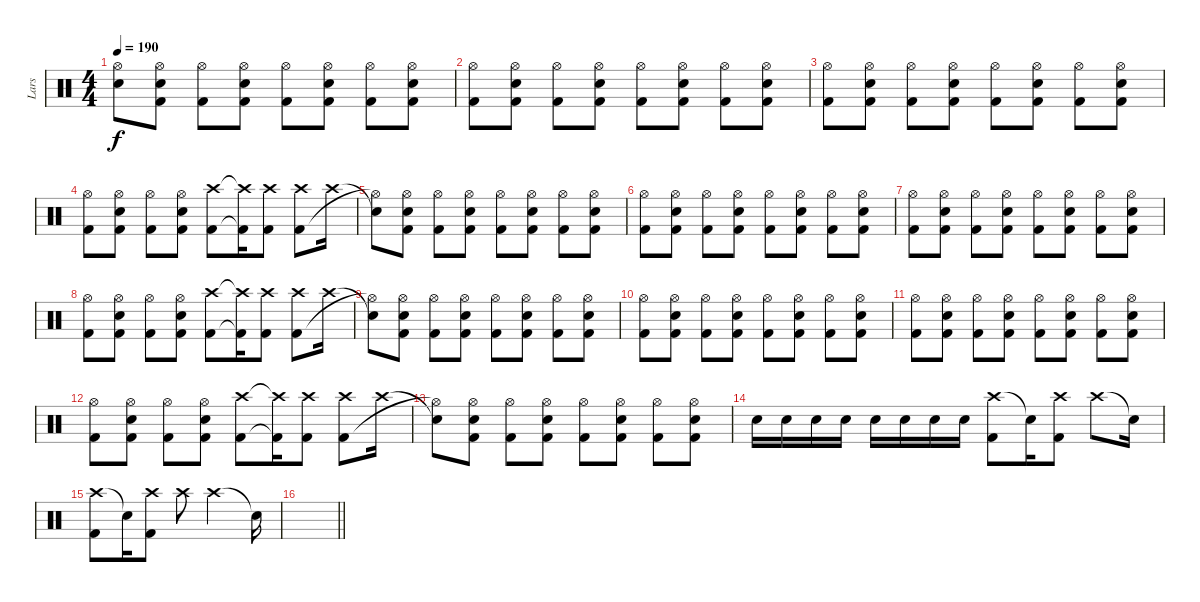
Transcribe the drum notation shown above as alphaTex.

\track ("Lars" "Lars") {instrument percussion}
\staff {score}
\articulation defaults
\ts (4 4)
\tempo 190
\clef neutral
\ks c
("Snare (hit)"{t} "Hi-Hat (open)"{t}).8{dy f} ("Hi-Hat (open)" "Snare (hit) 2" "Kick (hit) 2").8 ("Hi-Hat (open)" "Kick (hit) 2").8 ("Hi-Hat (open)" "Snare (hit) 2" "Kick (hit) 2").8 ("Hi-Hat (open)" "Kick (hit) 2").8 ("Hi-Hat (open)" "Snare (hit) 2" "Kick (hit) 2").8 ("Hi-Hat (open)" "Kick (hit) 2").8 ("Hi-Hat (open)" "Snare (hit) 2" "Kick (hit) 2").8 |
("Hi-Hat (open)" "Kick (hit) 2").8 ("Hi-Hat (open)" "Snare (hit) 2" "Kick (hit) 2").8 ("Hi-Hat (open)" "Kick (hit) 2").8 ("Hi-Hat (open)" "Snare (hit) 2" "Kick (hit) 2").8 ("Hi-Hat (open)" "Kick (hit) 2").8 ("Hi-Hat (open)" "Snare (hit) 2" "Kick (hit) 2").8 ("Hi-Hat (open)" "Kick (hit) 2").8 ("Hi-Hat (open)" "Snare (hit) 2" "Kick (hit) 2").8 |
("Hi-Hat (open)" "Kick (hit) 2").8 ("Hi-Hat (open)" "Snare (hit) 2" "Kick (hit) 2").8 ("Hi-Hat (open)" "Kick (hit) 2").8 ("Hi-Hat (open)" "Snare (hit) 2" "Kick (hit) 2").8 ("Hi-Hat (open)" "Kick (hit) 2").8 ("Hi-Hat (open)" "Snare (hit) 2" "Kick (hit) 2").8 ("Hi-Hat (open)" "Kick (hit) 2").8 ("Hi-Hat (open)" "Snare (hit) 2" "Kick (hit) 2").8 |
("Hi-Hat (open)" "Kick (hit) 2").8 ("Hi-Hat (open)" "Snare (hit) 2" "Kick (hit) 2").8 ("Hi-Hat (open)" "Kick (hit) 2").8 ("Hi-Hat (open)" "Snare (hit) 2" "Kick (hit) 2").8 ("Crash high (hit)" "Kick (hit) 2").8 ("Crash high (hit)"{t} "Kick (hit) 2"{t}).16 ("Crash high (hit)" "Kick (hit) 2").8 ("Crash high (hit)" "Kick (hit) 2").8 "Crash high (hit)".16 |
("Snare (hit)"{t} "Hi-Hat (open)"{t}).8 ("Hi-Hat (open)" "Snare (hit) 2" "Kick (hit) 2").8 ("Hi-Hat (open)" "Kick (hit) 2").8 ("Hi-Hat (open)" "Snare (hit) 2" "Kick (hit) 2").8 ("Hi-Hat (open)" "Kick (hit) 2").8 ("Hi-Hat (open)" "Snare (hit) 2" "Kick (hit) 2").8 ("Hi-Hat (open)" "Kick (hit) 2").8 ("Hi-Hat (open)" "Snare (hit) 2" "Kick (hit) 2").8 |
("Hi-Hat (open)" "Kick (hit) 2").8 ("Hi-Hat (open)" "Snare (hit) 2" "Kick (hit) 2").8 ("Hi-Hat (open)" "Kick (hit) 2").8 ("Hi-Hat (open)" "Snare (hit) 2" "Kick (hit) 2").8 ("Hi-Hat (open)" "Kick (hit) 2").8 ("Hi-Hat (open)" "Snare (hit) 2" "Kick (hit) 2").8 ("Hi-Hat (open)" "Kick (hit) 2").8 ("Hi-Hat (open)" "Snare (hit) 2" "Kick (hit) 2").8 |
("Hi-Hat (open)" "Kick (hit) 2").8 ("Hi-Hat (open)" "Snare (hit) 2" "Kick (hit) 2").8 ("Hi-Hat (open)" "Kick (hit) 2").8 ("Hi-Hat (open)" "Snare (hit) 2" "Kick (hit) 2").8 ("Hi-Hat (open)" "Kick (hit) 2").8 ("Hi-Hat (open)" "Snare (hit) 2" "Kick (hit) 2").8 ("Hi-Hat (open)" "Kick (hit) 2").8 ("Hi-Hat (open)" "Snare (hit) 2" "Kick (hit) 2").8 |
("Hi-Hat (open)" "Kick (hit) 2").8 ("Hi-Hat (open)" "Snare (hit) 2" "Kick (hit) 2").8 ("Hi-Hat (open)" "Kick (hit) 2").8 ("Hi-Hat (open)" "Snare (hit) 2" "Kick (hit) 2").8 ("Crash high (hit)" "Kick (hit) 2").8 ("Crash high (hit)"{t} "Kick (hit) 2"{t}).16 ("Crash high (hit)" "Kick (hit) 2").8 ("Crash high (hit)" "Kick (hit) 2").8 "Crash high (hit)".16 |
("Snare (hit)"{t} "Hi-Hat (open)"{t}).8 ("Hi-Hat (open)" "Snare (hit) 2" "Kick (hit) 2").8 ("Hi-Hat (open)" "Kick (hit) 2").8 ("Hi-Hat (open)" "Snare (hit) 2" "Kick (hit) 2").8 ("Hi-Hat (open)" "Kick (hit) 2").8 ("Hi-Hat (open)" "Snare (hit) 2" "Kick (hit) 2").8 ("Hi-Hat (open)" "Kick (hit) 2").8 ("Hi-Hat (open)" "Snare (hit) 2" "Kick (hit) 2").8 |
("Hi-Hat (open)" "Kick (hit) 2").8 ("Hi-Hat (open)" "Snare (hit) 2" "Kick (hit) 2").8 ("Hi-Hat (open)" "Kick (hit) 2").8 ("Hi-Hat (open)" "Snare (hit) 2" "Kick (hit) 2").8 ("Hi-Hat (open)" "Kick (hit) 2").8 ("Hi-Hat (open)" "Snare (hit) 2" "Kick (hit) 2").8 ("Hi-Hat (open)" "Kick (hit) 2").8 ("Hi-Hat (open)" "Snare (hit) 2" "Kick (hit) 2").8 |
("Hi-Hat (open)" "Kick (hit) 2").8 ("Hi-Hat (open)" "Snare (hit) 2" "Kick (hit) 2").8 ("Hi-Hat (open)" "Kick (hit) 2").8 ("Hi-Hat (open)" "Snare (hit) 2" "Kick (hit) 2").8 ("Hi-Hat (open)" "Kick (hit) 2").8 ("Hi-Hat (open)" "Snare (hit) 2" "Kick (hit) 2").8 ("Hi-Hat (open)" "Kick (hit) 2").8 ("Hi-Hat (open)" "Snare (hit) 2" "Kick (hit) 2").8 |
("Hi-Hat (open)" "Kick (hit) 2").8 ("Hi-Hat (open)" "Snare (hit) 2" "Kick (hit) 2").8 ("Hi-Hat (open)" "Kick (hit) 2").8 ("Hi-Hat (open)" "Snare (hit) 2" "Kick (hit) 2").8 ("Crash high (hit)" "Kick (hit) 2").8 ("Crash high (hit)"{t} "Kick (hit) 2"{t}).16 ("Crash high (hit)" "Kick (hit) 2").8 ("Crash high (hit)" "Kick (hit) 2").8 "Crash high (hit)".16 |
("Snare (hit)"{t} "Hi-Hat (open)"{t}).8 ("Hi-Hat (open)" "Snare (hit) 2" "Kick (hit) 2").8 ("Hi-Hat (open)" "Kick (hit) 2").8 ("Hi-Hat (open)" "Snare (hit) 2" "Kick (hit) 2").8 ("Hi-Hat (open)" "Kick (hit) 2").8 ("Hi-Hat (open)" "Snare (hit) 2" "Kick (hit) 2").8 ("Hi-Hat (open)" "Kick (hit) 2").8 ("Hi-Hat (open)" "Snare (hit) 2" "Kick (hit) 2").8 |
"Snare (hit) 2".16 "Snare (hit) 2".16 "Snare (hit) 2".16 "Snare (hit) 2".16 "Snare (hit) 2".16 "Snare (hit) 2".16 "Snare (hit) 2".16 "Snare (hit) 2".16 ("Crash high (hit)" "Kick (hit) 2").8 "Snare (hit)"{t}.16 ("Crash high (hit)" "Kick (hit) 2").8 "Crash high (hit)".8 "Snare (hit)"{t}.16 |
("Crash high (hit)" "Kick (hit) 2").8 "Snare (hit)"{t}.16 ("Crash high (hit)" "Kick (hit) 2").8 "Crash high (hit)".8 "Crash high (hit)".2 "Snare (hit)"{t}.16 |
\barLineRight lightlight
